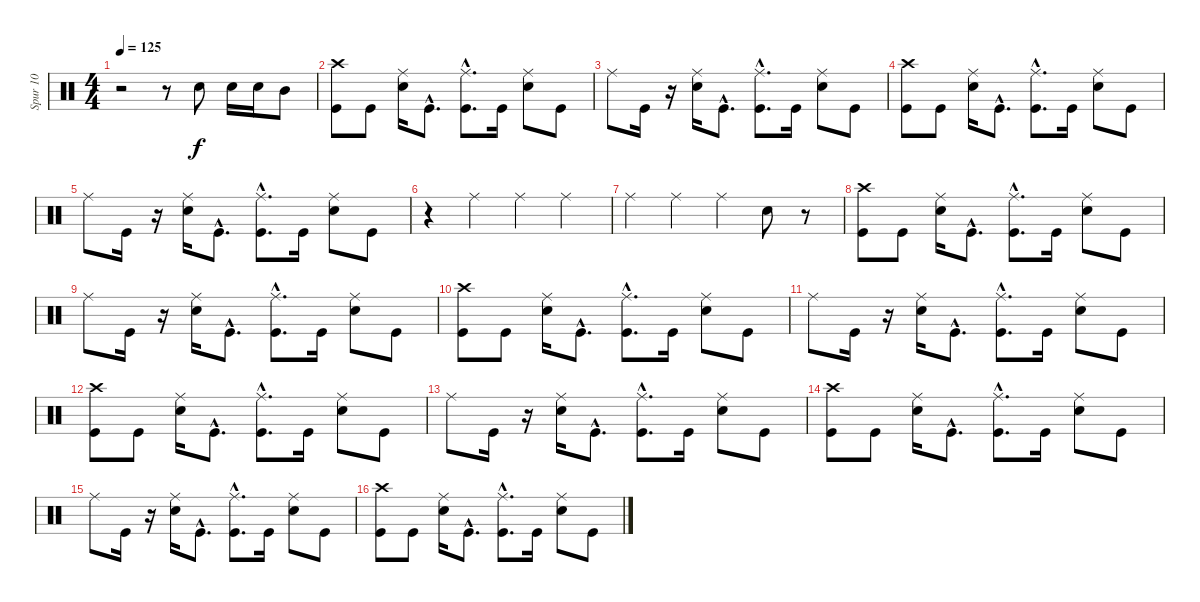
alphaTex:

\track ("Spur 10" "Spur 10") {instrument percussion}
\staff {score}
\articulation defaults
\ts (4 4)
\tempo 125
\clef neutral
\ks c
r.2{dy f} r.8 "Snare (hit) 2".8 "Snare (hit) 2".16 "Snare (hit) 2".16 "Mid Tom (hit)".8 |
("Kick (hit)" "Crash high (hit)").8 "Kick (hit)".8 ("Snare (hit) 2" "Ride (middle)").16 "Kick (hit)"{hac}.8{d} ("Ride (middle)" "Kick (hit)"{hac}).8{d} "Kick (hit)".16 ("Snare (hit) 2" "Ride (middle)").8 "Kick (hit)".8 |
"Ride (middle)".8 "Kick (hit)".16 r.16 ("Snare (hit) 2" "Ride (middle)").16 "Kick (hit)"{hac}.8{d} ("Ride (middle)" "Kick (hit)"{hac}).8{d} "Kick (hit)".16 ("Ride (middle)" "Snare (hit) 2").8 "Kick (hit)".8 |
("Crash high (hit)" "Kick (hit)").8 "Kick (hit)".8 ("Snare (hit) 2" "Ride (middle)").16 "Kick (hit)"{hac}.8{d} ("Kick (hit)"{hac} "Ride (middle)").8{d} "Kick (hit)".16 ("Ride (middle)" "Snare (hit) 2").8 "Kick (hit)".8 |
"Ride (middle)".8 "Kick (hit)".16 r.16 ("Ride (middle)" "Snare (hit) 2").16 "Kick (hit)"{hac}.8{d} ("Kick (hit)"{hac} "Ride (middle)").8{d} "Kick (hit)".16 ("Ride (middle)" "Snare (hit) 2").8 "Kick (hit)".8 |
r.4 "Ride (middle)".4 "Ride (middle)".4 "Ride (middle)".4 |
"Ride (middle)".4 "Ride (middle)".4 "Ride (middle)".4 "Electric Snare (hit)".8 r.8 |
("Kick (hit)" "Crash high (hit)").8 "Kick (hit)".8 ("Ride (middle)" "Snare (hit) 2").16 "Kick (hit)"{hac}.8{d} ("Kick (hit)"{hac} "Ride (middle)").8{d} "Kick (hit)".16 ("Snare (hit) 2" "Ride (middle)").8 "Kick (hit)".8 |
"Ride (middle)".8 "Kick (hit)".16 r.16 ("Ride (middle)" "Snare (hit) 2").16 "Kick (hit)"{hac}.8{d} ("Kick (hit)"{hac} "Ride (middle)").8{d} "Kick (hit)".16 ("Snare (hit) 2" "Ride (middle)").8 "Kick (hit)".8 |
("Kick (hit)" "Crash high (hit)").8 "Kick (hit)".8 ("Snare (hit) 2" "Ride (middle)").16 "Kick (hit)"{hac}.8{d} ("Ride (middle)" "Kick (hit)"{hac}).8{d} "Kick (hit)".16 ("Snare (hit) 2" "Ride (middle)").8 "Kick (hit)".8 |
"Ride (middle)".8 "Kick (hit)".16 r.16 ("Snare (hit) 2" "Ride (middle)").16 "Kick (hit)"{hac}.8{d} ("Ride (middle)" "Kick (hit)"{hac}).8{d} "Kick (hit)".16 ("Snare (hit) 2" "Ride (middle)").8 "Kick (hit)".8 |
("Kick (hit)" "Crash high (hit)").8 "Kick (hit)".8 ("Snare (hit) 2" "Ride (middle)").16 "Kick (hit)"{hac}.8{d} ("Ride (middle)" "Kick (hit)"{hac}).8{d} "Kick (hit)".16 ("Ride (middle)" "Snare (hit) 2").8 "Kick (hit)".8 |
"Ride (middle)".8 "Kick (hit)".16 r.16 ("Snare (hit) 2" "Ride (middle)").16 "Kick (hit)"{hac}.8{d} ("Ride (middle)" "Kick (hit)"{hac}).8{d} "Kick (hit)".16 ("Ride (middle)" "Snare (hit) 2").8 "Kick (hit)".8 |
("Kick (hit)" "Crash high (hit)").8 "Kick (hit)".8 ("Ride (middle)" "Snare (hit) 2").16 "Kick (hit)"{hac}.8{d} ("Kick (hit)"{hac} "Ride (middle)").8{d} "Kick (hit)".16 ("Ride (middle)" "Snare (hit) 2").8 "Kick (hit)".8 |
"Ride (middle)".8 "Kick (hit)".16 r.16 ("Snare (hit) 2" "Ride (middle)").16 "Kick (hit)"{hac}.8{d} ("Ride (middle)" "Kick (hit)"{hac}).8{d} "Kick (hit)".16 ("Ride (middle)" "Snare (hit) 2").8 "Kick (hit)".8 |
("Crash high (hit)" "Kick (hit)").8 "Kick (hit)".8 ("Snare (hit) 2" "Ride (middle)").16 "Kick (hit)"{hac}.8{d} ("Kick (hit)"{hac} "Ride (middle)").8{d} "Kick (hit)".16 ("Snare (hit) 2" "Ride (middle)").8 "Kick (hit)".8
